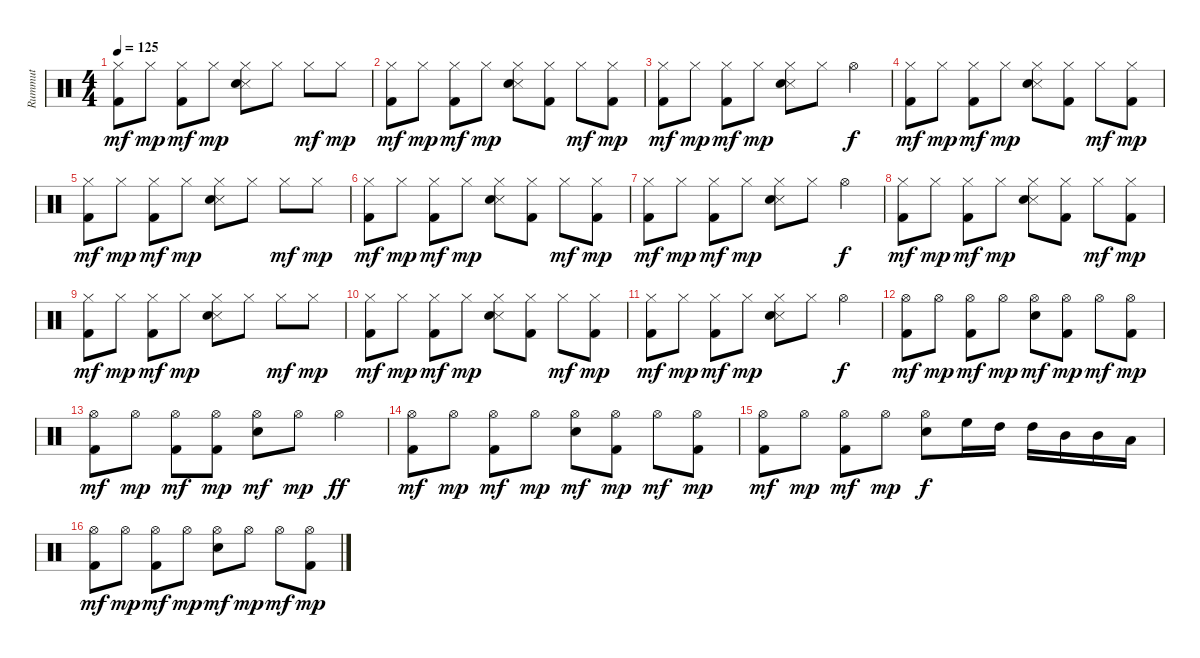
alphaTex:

\track ("Rummut" "Rummut") {instrument percussion}
\staff {score}
\articulation defaults
\ts (4 4)
\tempo 125
\clef neutral
\ks c
("Hi-Hat (closed)" "Kick (hit) 2").8{dy mf} "Hi-Hat (closed)".8{dy mp} ("Hi-Hat (closed)" "Kick (hit) 2").8{dy mf} "Hi-Hat (closed)".8{dy mp} ("Hi-Hat (closed)" "Snare (side stick) 3" "Electric Snare (hit)").8 "Hi-Hat (closed)".8 "Hi-Hat (closed)".8{dy mf} "Hi-Hat (closed)".8{dy mp} |
("Hi-Hat (closed)" "Kick (hit) 2").8{dy mf} "Hi-Hat (closed)".8{dy mp} ("Hi-Hat (closed)" "Kick (hit) 2").8{dy mf} "Hi-Hat (closed)".8{dy mp} ("Hi-Hat (closed)" "Snare (side stick) 3" "Electric Snare (hit)").8 ("Hi-Hat (closed)" "Kick (hit) 2").8 "Hi-Hat (closed)".8{dy mf} ("Hi-Hat (closed)" "Kick (hit) 2").8{dy mp} |
("Hi-Hat (closed)" "Kick (hit) 2").8{dy mf} "Hi-Hat (closed)".8{dy mp} ("Hi-Hat (closed)" "Kick (hit) 2").8{dy mf} "Hi-Hat (closed)".8{dy mp} ("Hi-Hat (closed)" "Snare (side stick) 3" "Electric Snare (hit)").8 "Hi-Hat (closed)".8 "Hi-Hat (open)".4{dy f} |
("Hi-Hat (closed)" "Kick (hit) 2").8{dy mf} "Hi-Hat (closed)".8{dy mp} ("Hi-Hat (closed)" "Kick (hit) 2").8{dy mf} "Hi-Hat (closed)".8{dy mp} ("Hi-Hat (closed)" "Snare (side stick) 3" "Electric Snare (hit)").8 ("Hi-Hat (closed)" "Kick (hit) 2").8 "Hi-Hat (closed)".8{dy mf} ("Hi-Hat (closed)" "Kick (hit) 2").8{dy mp} |
("Hi-Hat (closed)" "Kick (hit) 2").8{dy mf} "Hi-Hat (closed)".8{dy mp} ("Hi-Hat (closed)" "Kick (hit) 2").8{dy mf} "Hi-Hat (closed)".8{dy mp} ("Hi-Hat (closed)" "Snare (side stick) 3" "Electric Snare (hit)").8 "Hi-Hat (closed)".8 "Hi-Hat (closed)".8{dy mf} "Hi-Hat (closed)".8{dy mp} |
("Hi-Hat (closed)" "Kick (hit) 2").8{dy mf} "Hi-Hat (closed)".8{dy mp} ("Hi-Hat (closed)" "Kick (hit) 2").8{dy mf} "Hi-Hat (closed)".8{dy mp} ("Hi-Hat (closed)" "Snare (side stick) 3" "Electric Snare (hit)").8 ("Hi-Hat (closed)" "Kick (hit) 2").8 "Hi-Hat (closed)".8{dy mf} ("Hi-Hat (closed)" "Kick (hit) 2").8{dy mp} |
("Hi-Hat (closed)" "Kick (hit) 2").8{dy mf} "Hi-Hat (closed)".8{dy mp} ("Hi-Hat (closed)" "Kick (hit) 2").8{dy mf} "Hi-Hat (closed)".8{dy mp} ("Hi-Hat (closed)" "Snare (side stick) 3" "Electric Snare (hit)").8 "Hi-Hat (closed)".8 "Hi-Hat (open)".4{dy f} |
("Hi-Hat (closed)" "Kick (hit) 2").8{dy mf} "Hi-Hat (closed)".8{dy mp} ("Hi-Hat (closed)" "Kick (hit) 2").8{dy mf} "Hi-Hat (closed)".8{dy mp} ("Hi-Hat (closed)" "Snare (side stick) 3" "Electric Snare (hit)").8 ("Hi-Hat (closed)" "Kick (hit) 2").8 "Hi-Hat (closed)".8{dy mf} ("Hi-Hat (closed)" "Kick (hit) 2").8{dy mp} |
("Hi-Hat (closed)" "Kick (hit) 2").8{dy mf} "Hi-Hat (closed)".8{dy mp} ("Hi-Hat (closed)" "Kick (hit) 2").8{dy mf} "Hi-Hat (closed)".8{dy mp} ("Hi-Hat (closed)" "Snare (side stick) 3" "Electric Snare (hit)").8 "Hi-Hat (closed)".8 "Hi-Hat (closed)".8{dy mf} "Hi-Hat (closed)".8{dy mp} |
("Hi-Hat (closed)" "Kick (hit) 2").8{dy mf} "Hi-Hat (closed)".8{dy mp} ("Hi-Hat (closed)" "Kick (hit) 2").8{dy mf} "Hi-Hat (closed)".8{dy mp} ("Hi-Hat (closed)" "Snare (side stick) 3" "Electric Snare (hit)").8 ("Hi-Hat (closed)" "Kick (hit) 2").8 "Hi-Hat (closed)".8{dy mf} ("Hi-Hat (closed)" "Kick (hit) 2").8{dy mp} |
("Hi-Hat (closed)" "Kick (hit) 2").8{dy mf} "Hi-Hat (closed)".8{dy mp} ("Hi-Hat (closed)" "Kick (hit) 2").8{dy mf} "Hi-Hat (closed)".8{dy mp} ("Hi-Hat (closed)" "Snare (side stick) 3" "Electric Snare (hit)").8 "Hi-Hat (closed)".8 "Hi-Hat (open)".4{dy f} |
("Hi-Hat (open)" "Kick (hit) 2").8{dy mf volume 13} "Hi-Hat (open)".8{dy mp} ("Hi-Hat (open)" "Kick (hit) 2").8{dy mf} "Hi-Hat (open)".8{dy mp} ("Hi-Hat (open)" "Electric Snare (hit)").8{dy mf} ("Hi-Hat (open)" "Kick (hit) 2").8{dy mp} "Hi-Hat (open)".8{dy mf} ("Hi-Hat (open)" "Kick (hit) 2").8{dy mp} |
("Hi-Hat (open)" "Kick (hit) 2").8{dy mf} "Hi-Hat (open)".8{dy mp} ("Hi-Hat (open)" "Kick (hit) 2").8{dy mf} ("Hi-Hat (open)" "Kick (hit) 2").8{dy mp} ("Hi-Hat (open)" "Electric Snare (hit)").8{dy mf} "Hi-Hat (open)".8{dy mp} "Hi-Hat (open)".4{dy ff} |
("Hi-Hat (open)" "Kick (hit) 2").8{dy mf} "Hi-Hat (open)".8{dy mp} ("Hi-Hat (open)" "Kick (hit) 2").8{dy mf} "Hi-Hat (open)".8{dy mp} ("Hi-Hat (open)" "Electric Snare (hit)").8{dy mf} ("Hi-Hat (open)" "Kick (hit) 2").8{dy mp} "Hi-Hat (open)".8{dy mf} ("Hi-Hat (open)" "Kick (hit) 2").8{dy mp} |
("Hi-Hat (open)" "Kick (hit) 2").8{dy mf} "Hi-Hat (open)".8{dy mp} ("Hi-Hat (open)" "Kick (hit) 2").8{dy mf} "Hi-Hat (open)".8{dy mp} ("Hi-Hat (open)" "Electric Snare (hit)").8{dy f} "High Floor Tom (hit)".16 "High Tom (hit)".16 "High Tom (hit)".16 "Mid Tom (hit)".16 "Mid Tom (hit)".16 "Low Tom (hit)".16 |
("Hi-Hat (open)" "Kick (hit) 2").8{dy mf} "Hi-Hat (open)".8{dy mp} ("Hi-Hat (open)" "Kick (hit) 2").8{dy mf} "Hi-Hat (open)".8{dy mp} ("Hi-Hat (open)" "Electric Snare (hit)").8{dy mf} "Hi-Hat (open)".8{dy mp} "Hi-Hat (open)".8{dy mf} ("Hi-Hat (open)" "Kick (hit) 2").8{dy mp}
